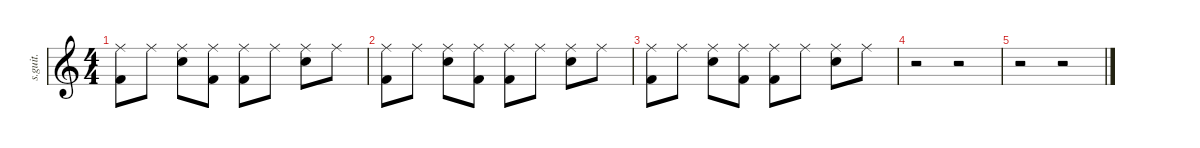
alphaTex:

\defaultSystemsLayout 4
\hideDynamics
\bracketExtendMode nobrackets
\track ("Jim Gordon (Drums)" "s.guit.") {instrument percussion}
\staff {score}
\articulation defaults
\ts (4 4)
\tempo (107 hide)
\clef g2
\ks c
("Ride (middle)" "Kick (hit) 2").8{dy mp} "Ride (middle)".8 ("Snare (hit) 2" "Ride (middle)").8 ("Ride (middle)" "Kick (hit) 2").8 ("Ride (middle)" "Kick (hit) 2").8 "Ride (middle)".8 ("Snare (hit) 2" "Ride (middle)").8 "Ride (middle)".8 |
("Ride (middle)" "Kick (hit) 2").8 "Ride (middle)".8 ("Snare (hit) 2" "Ride (middle)").8 ("Kick (hit) 2" "Ride (middle)").8 ("Ride (middle)" "Kick (hit) 2").8 "Ride (middle)".8 ("Snare (hit) 2" "Ride (middle)").8 "Ride (middle)".8 |
("Ride (middle)" "Kick (hit) 2").8 "Ride (middle)".8 ("Snare (hit) 2" "Ride (middle)").8 ("Kick (hit) 2" "Ride (middle)").8 ("Ride (middle)" "Kick (hit) 2").8 "Ride (middle)".8 ("Snare (hit) 2" "Ride (middle)").8 "Ride (middle)".8 |
r.2 r.2 |
r.2 r.2
